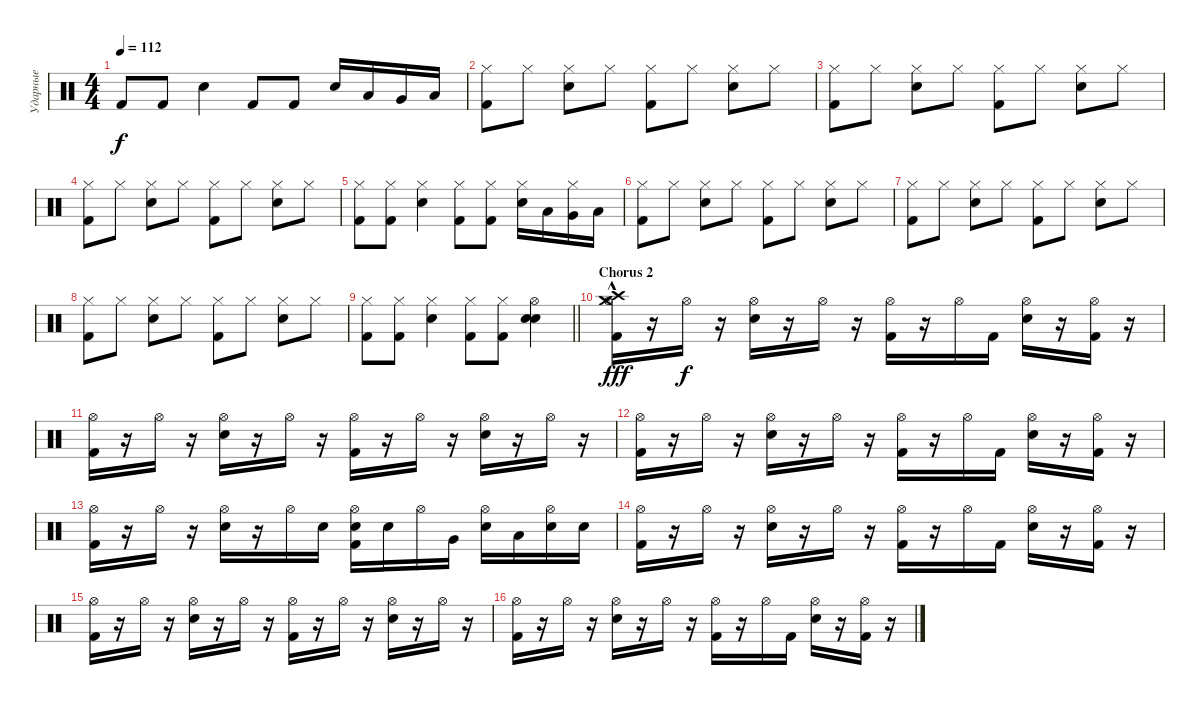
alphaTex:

\track ("Ударные" "Ударные") {instrument percussion}
\staff {score}
\articulation defaults
\ts (4 4)
\tempo 112
\clef neutral
\ks c "Kick (hit) 2".8{dy f} "Kick (hit) 2".8 "Snare (hit) 2".4 "Kick (hit) 2".8 "Kick (hit) 2".8 "Snare (hit) 2".16 "Low Tom (hit)".16 "Very Low Tom (hit)".16 "Low Floor Tom (hit)".16
|
("Hi-Hat (closed)" "Kick (hit) 2").8 "Hi-Hat (closed)".8 ("Hi-Hat (closed)" "Snare (hit) 2").8 "Hi-Hat (closed)".8 ("Hi-Hat (closed)" "Kick (hit) 2").8 "Hi-Hat (closed)".8 ("Hi-Hat (closed)" "Snare (hit) 2").8 "Hi-Hat (closed)".8 |
("Hi-Hat (closed)" "Kick (hit) 2").8 "Hi-Hat (closed)".8 ("Hi-Hat (closed)" "Snare (hit) 2").8 "Hi-Hat (closed)".8 ("Hi-Hat (closed)" "Kick (hit) 2").8 "Hi-Hat (closed)".8 ("Hi-Hat (closed)" "Snare (hit) 2").8 "Hi-Hat (closed)".8 |
("Hi-Hat (closed)" "Kick (hit) 2").8 "Hi-Hat (closed)".8 ("Hi-Hat (closed)" "Snare (hit) 2").8 "Hi-Hat (closed)".8 ("Hi-Hat (closed)" "Kick (hit) 2").8 "Hi-Hat (closed)".8 ("Hi-Hat (closed)" "Snare (hit) 2").8 "Hi-Hat (closed)".8 |
("Hi-Hat (closed)" "Kick (hit) 2").8 ("Hi-Hat (closed)" "Kick (hit) 2").8 ("Hi-Hat (closed)" "Snare (hit) 2").4 ("Hi-Hat (closed)" "Kick (hit) 2").8 ("Hi-Hat (closed)" "Kick (hit) 2").8 ("Hi-Hat (closed)" "Snare (hit) 2").16 "Low Tom (hit)".16 ("Hi-Hat (closed)" "Very Low Tom (hit)").16 "Low Floor Tom (hit)".16 |
("Hi-Hat (closed)" "Kick (hit) 2").8 "Hi-Hat (closed)".8 ("Hi-Hat (closed)" "Snare (hit) 2").8 "Hi-Hat (closed)".8 ("Hi-Hat (closed)" "Kick (hit) 2").8 "Hi-Hat (closed)".8 ("Hi-Hat (closed)" "Snare (hit) 2").8 "Hi-Hat (closed)".8 |
("Hi-Hat (closed)" "Kick (hit) 2").8 "Hi-Hat (closed)".8 ("Hi-Hat (closed)" "Snare (hit) 2").8 "Hi-Hat (closed)".8 ("Hi-Hat (closed)" "Kick (hit) 2").8 "Hi-Hat (closed)".8 ("Hi-Hat (closed)" "Snare (hit) 2").8 "Hi-Hat (closed)".8 |
("Hi-Hat (closed)" "Kick (hit) 2").8 "Hi-Hat (closed)".8 ("Hi-Hat (closed)" "Snare (hit) 2").8 "Hi-Hat (closed)".8 ("Hi-Hat (closed)" "Kick (hit) 2").8 "Hi-Hat (closed)".8 ("Hi-Hat (closed)" "Snare (hit) 2").8 "Hi-Hat (closed)".8 |
\barLineRight lightlight
("Hi-Hat (closed)" "Kick (hit) 2").8 ("Hi-Hat (closed)" "Kick (hit) 2").8 ("Hi-Hat (closed)" "Snare (hit) 2").4 ("Hi-Hat (closed)" "Kick (hit) 2").8 ("Hi-Hat (closed)" "Kick (hit) 2").8 ("Hi-Hat (open)" "Snare (hit) 2" "Electric Snare (hit)").4 |
\section ("" "Chorus 2")
("Crash high (hit)"{hac} "Crash medium (hit)"{hac} "Hi-Hat (open)" "Kick (hit) 2").16{dy fff} r.16 "Hi-Hat (open)".16{dy f} r.16 ("Hi-Hat (open)" "Snare (hit) 2").16 r.16 "Hi-Hat (open)".16 r.16 ("Hi-Hat (open)" "Kick (hit) 2").16 r.16 "Hi-Hat (open)".16 "Kick (hit) 2".16 ("Hi-Hat (open)" "Snare (hit) 2").16 r.16 ("Hi-Hat (open)" "Kick (hit) 2").16 r.16 |
("Hi-Hat (open)" "Kick (hit) 2").16 r.16 "Hi-Hat (open)".16 r.16 ("Hi-Hat (open)" "Snare (hit) 2").16 r.16 "Hi-Hat (open)".16 r.16 ("Hi-Hat (open)" "Kick (hit) 2").16 r.16 "Hi-Hat (open)".16 r.16 ("Hi-Hat (open)" "Snare (hit) 2").16 r.16 "Hi-Hat (open)".16 r.16 |
("Hi-Hat (open)" "Kick (hit) 2").16 r.16 "Hi-Hat (open)".16 r.16 ("Hi-Hat (open)" "Snare (hit) 2").16 r.16 "Hi-Hat (open)".16 r.16 ("Hi-Hat (open)" "Kick (hit) 2").16 r.16 "Hi-Hat (open)".16 "Kick (hit) 2".16 ("Hi-Hat (open)" "Snare (hit) 2").16 r.16 ("Hi-Hat (open)" "Kick (hit) 2").16 r.16 |
("Hi-Hat (open)" "Kick (hit) 2").16 r.16 "Hi-Hat (open)".16 r.16 ("Hi-Hat (open)" "Snare (hit) 2").16 r.16 "Hi-Hat (open)".16 "Snare (hit) 2".16 ("Hi-Hat (open)" "Electric Snare (hit)" "Kick (hit) 2").16 "Snare (hit) 2".16 "Hi-Hat (open)".16 "Very Low Tom (hit)".16 ("Hi-Hat (open)" "Snare (hit) 2").16 "Low Floor Tom (hit)".16 ("Hi-Hat (open)" "Electric Snare (hit)").16 "Snare (hit) 2".16 |
("Hi-Hat (open)" "Kick (hit) 2").16 r.16 "Hi-Hat (open)".16 r.16 ("Hi-Hat (open)" "Snare (hit) 2").16 r.16 "Hi-Hat (open)".16 r.16 ("Hi-Hat (open)" "Kick (hit) 2").16 r.16 "Hi-Hat (open)".16 "Kick (hit) 2".16 ("Hi-Hat (open)" "Snare (hit) 2").16 r.16 ("Hi-Hat (open)" "Kick (hit) 2").16 r.16 |
("Hi-Hat (open)" "Kick (hit) 2").16 r.16 "Hi-Hat (open)".16 r.16 ("Hi-Hat (open)" "Snare (hit) 2").16 r.16 "Hi-Hat (open)".16 r.16 ("Hi-Hat (open)" "Kick (hit) 2").16 r.16 "Hi-Hat (open)".16 r.16 ("Hi-Hat (open)" "Snare (hit) 2").16 r.16 "Hi-Hat (open)".16 r.16 |
("Hi-Hat (open)" "Kick (hit) 2").16 r.16 "Hi-Hat (open)".16 r.16 ("Hi-Hat (open)" "Snare (hit) 2").16 r.16 "Hi-Hat (open)".16 r.16 ("Hi-Hat (open)" "Kick (hit) 2").16 r.16 "Hi-Hat (open)".16 "Kick (hit) 2".16 ("Hi-Hat (open)" "Snare (hit) 2").16 r.16 ("Hi-Hat (open)" "Kick (hit) 2").16 r.16
